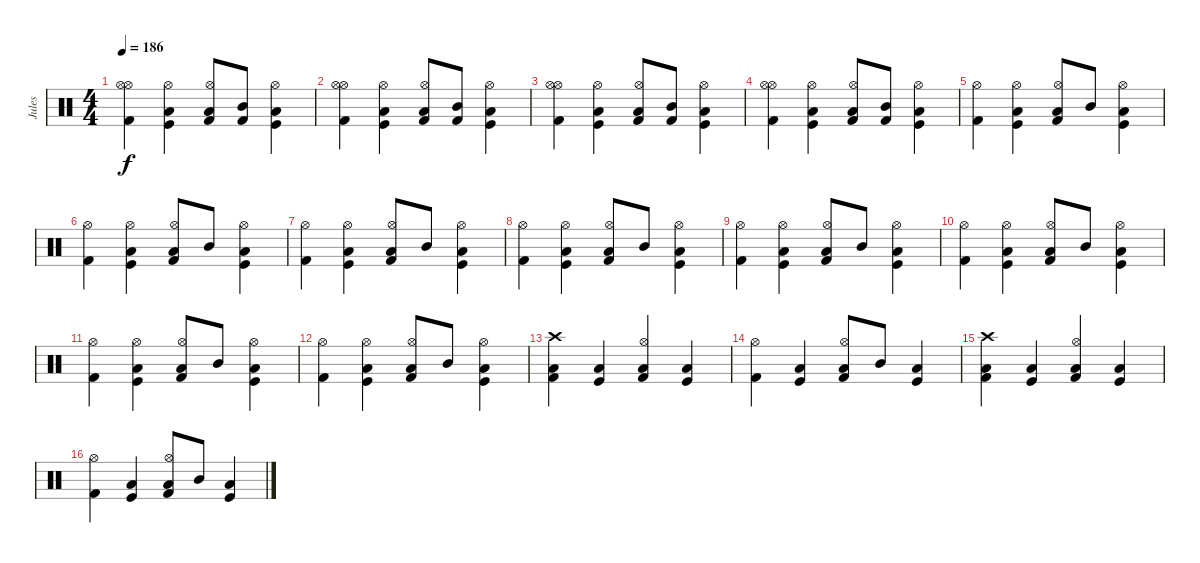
\track ("Jules" "Jules") {instrument percussion}
\staff {score}
\articulation defaults
\ts (4 4)
\tempo 186
\clef neutral
\ks c
("Kick (hit) 2" "Hi-Hat (open)" "Hi-Hat (open)").4{dy f} ("Kick (hit)" "Low Floor Tom (hit)" "Hi-Hat (open)").4 ("Kick (hit) 2" "Hi-Hat (open)" "Low Floor Tom (hit)").8 ("Mid Tom (hit)" "Kick (hit) 2").8 ("Kick (hit)" "Low Floor Tom (hit)" "Hi-Hat (open)").4 |
("Kick (hit) 2" "Hi-Hat (open)" "Hi-Hat (open)").4 ("Kick (hit)" "Low Floor Tom (hit)" "Hi-Hat (open)").4 ("Kick (hit) 2" "Hi-Hat (open)" "Low Floor Tom (hit)").8 ("Mid Tom (hit)" "Kick (hit) 2").8 ("Kick (hit)" "Low Floor Tom (hit)" "Hi-Hat (open)").4 |
("Kick (hit) 2" "Hi-Hat (open)" "Hi-Hat (open)").4 ("Kick (hit)" "Low Floor Tom (hit)" "Hi-Hat (open)").4 ("Kick (hit) 2" "Hi-Hat (open)" "Low Floor Tom (hit)").8 ("Mid Tom (hit)" "Kick (hit) 2").8 ("Kick (hit)" "Low Floor Tom (hit)" "Hi-Hat (open)").4 |
("Kick (hit) 2" "Hi-Hat (open)" "Hi-Hat (open)").4 ("Kick (hit)" "Low Floor Tom (hit)" "Hi-Hat (open)").4 ("Kick (hit) 2" "Hi-Hat (open)" "Low Floor Tom (hit)").8 ("Mid Tom (hit)" "Kick (hit) 2").8 ("Kick (hit)" "Low Floor Tom (hit)" "Hi-Hat (open)").4 |
("Kick (hit) 2" "Hi-Hat (open)").4 ("Kick (hit)" "Low Floor Tom (hit)" "Hi-Hat (open)").4 ("Kick (hit) 2" "Hi-Hat (open)" "Low Floor Tom (hit)").8 "Mid Tom (hit)".8 ("Kick (hit)" "Low Floor Tom (hit)" "Hi-Hat (open)").4 |
("Kick (hit) 2" "Hi-Hat (open)").4 ("Kick (hit)" "Low Floor Tom (hit)" "Hi-Hat (open)").4 ("Kick (hit) 2" "Hi-Hat (open)" "Low Floor Tom (hit)").8 "Mid Tom (hit)".8 ("Kick (hit)" "Low Floor Tom (hit)" "Hi-Hat (open)").4 |
("Kick (hit) 2" "Hi-Hat (open)").4 ("Kick (hit)" "Low Floor Tom (hit)" "Hi-Hat (open)").4 ("Kick (hit) 2" "Hi-Hat (open)" "Low Floor Tom (hit)").8 "Mid Tom (hit)".8 ("Kick (hit)" "Low Floor Tom (hit)" "Hi-Hat (open)").4 |
("Kick (hit) 2" "Hi-Hat (open)").4 ("Kick (hit)" "Low Floor Tom (hit)" "Hi-Hat (open)").4 ("Kick (hit) 2" "Hi-Hat (open)" "Low Floor Tom (hit)").8 "Mid Tom (hit)".8 ("Kick (hit)" "Low Floor Tom (hit)" "Hi-Hat (open)").4 |
("Kick (hit) 2" "Hi-Hat (open)").4 ("Kick (hit)" "Low Floor Tom (hit)" "Hi-Hat (open)").4 ("Kick (hit) 2" "Hi-Hat (open)" "Low Floor Tom (hit)").8 "Mid Tom (hit)".8 ("Kick (hit)" "Low Floor Tom (hit)" "Hi-Hat (open)").4 |
("Kick (hit) 2" "Hi-Hat (open)").4 ("Kick (hit)" "Low Floor Tom (hit)" "Hi-Hat (open)").4 ("Kick (hit) 2" "Hi-Hat (open)" "Low Floor Tom (hit)").8 "Mid Tom (hit)".8 ("Kick (hit)" "Low Floor Tom (hit)" "Hi-Hat (open)").4 |
("Kick (hit) 2" "Hi-Hat (open)").4 ("Kick (hit)" "Low Floor Tom (hit)" "Hi-Hat (open)").4 ("Kick (hit) 2" "Hi-Hat (open)" "Low Floor Tom (hit)").8 "Mid Tom (hit)".8 ("Kick (hit)" "Low Floor Tom (hit)" "Hi-Hat (open)").4 |
("Kick (hit) 2" "Hi-Hat (open)").4 ("Kick (hit)" "Low Floor Tom (hit)" "Hi-Hat (open)").4 ("Kick (hit) 2" "Hi-Hat (open)" "Low Floor Tom (hit)").8 "Mid Tom (hit)".8 ("Kick (hit)" "Low Floor Tom (hit)" "Hi-Hat (open)").4 |
("Kick (hit) 2" "Low Floor Tom (hit)" "Crash high (hit)").4 ("Kick (hit)" "Low Floor Tom (hit)").4 ("Kick (hit) 2" "Hi-Hat (open)" "Low Floor Tom (hit)").4 ("Kick (hit)" "Low Floor Tom (hit)").4 |
("Kick (hit) 2" "Hi-Hat (open)").4 ("Kick (hit)" "Low Floor Tom (hit)").4 ("Kick (hit) 2" "Hi-Hat (open)" "Low Floor Tom (hit)").8 "Mid Tom (hit)".8 ("Kick (hit)" "Low Floor Tom (hit)").4 |
("Kick (hit) 2" "Low Floor Tom (hit)" "Crash high (hit)").4 ("Kick (hit)" "Low Floor Tom (hit)").4 ("Kick (hit) 2" "Hi-Hat (open)" "Low Floor Tom (hit)").4 ("Kick (hit)" "Low Floor Tom (hit)").4 |
("Kick (hit) 2" "Hi-Hat (open)").4 ("Kick (hit)" "Low Floor Tom (hit)").4 ("Kick (hit) 2" "Hi-Hat (open)" "Low Floor Tom (hit)").8 "Mid Tom (hit)".8 ("Kick (hit)" "Low Floor Tom (hit)").4
